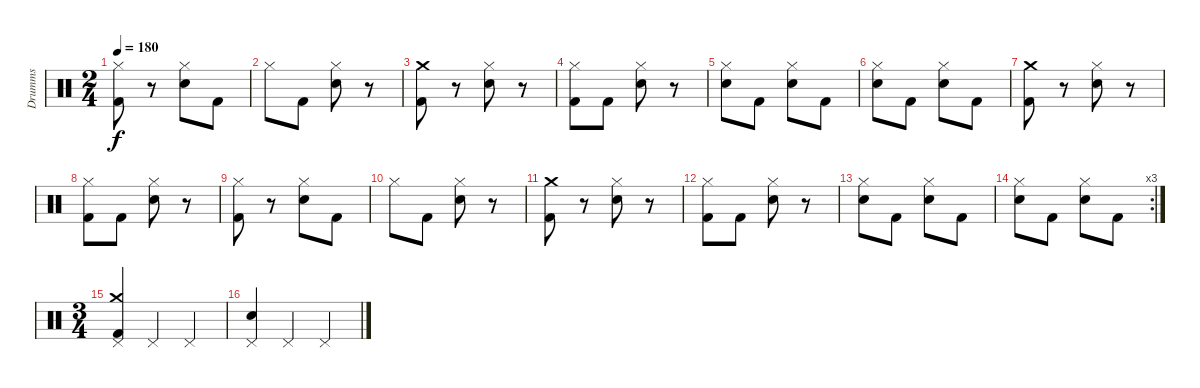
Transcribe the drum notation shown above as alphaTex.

\track ("Drumms" "Drumms") {instrument percussion}
\staff {score}
\articulation defaults
\ts (2 4)
\tempo 180
\clef neutral
\ks c
("Kick (hit) 2" "Hi-Hat (closed)").8{dy f} r.8 ("Snare (hit) 2" "Hi-Hat (closed)").8 "Kick (hit) 2".8 |
"Hi-Hat (closed)".8 "Kick (hit) 2".8 ("Snare (hit) 2" "Hi-Hat (closed)").8 r.8 |
("Kick (hit) 2" "Crash medium (hit)").8 r.8 ("Snare (hit) 2" "Hi-Hat (closed)").8 r.8 |
("Kick (hit) 2" "Hi-Hat (closed)").8 "Kick (hit) 2".8 ("Snare (hit) 2" "Hi-Hat (closed)").8 r.8 |
("Snare (hit) 2" "Hi-Hat (closed)").8 "Kick (hit) 2".8 ("Snare (hit) 2" "Hi-Hat (closed)").8 "Kick (hit) 2".8 |
("Snare (hit) 2" "Hi-Hat (closed)").8 "Kick (hit) 2".8 ("Snare (hit) 2" "Hi-Hat (closed)").8 "Kick (hit) 2".8 |
("Kick (hit) 2" "Crash medium (hit)").8 r.8 ("Snare (hit) 2" "Hi-Hat (closed)").8 r.8 |
("Kick (hit) 2" "Hi-Hat (closed)").8 "Kick (hit) 2".8 ("Snare (hit) 2" "Hi-Hat (closed)").8 r.8 |
("Kick (hit) 2" "Hi-Hat (closed)").8 r.8 ("Snare (hit) 2" "Hi-Hat (closed)").8 "Kick (hit) 2".8 |
"Hi-Hat (closed)".8 "Kick (hit) 2".8 ("Snare (hit) 2" "Hi-Hat (closed)").8 r.8 |
("Kick (hit) 2" "Crash medium (hit)").8 r.8 ("Snare (hit) 2" "Hi-Hat (closed)").8 r.8 |
("Kick (hit) 2" "Hi-Hat (closed)").8 "Kick (hit) 2".8 ("Snare (hit) 2" "Hi-Hat (closed)").8 r.8 |
("Snare (hit) 2" "Hi-Hat (closed)").8 "Kick (hit) 2".8 ("Snare (hit) 2" "Hi-Hat (closed)").8 "Kick (hit) 2".8 |
\rc 3
("Snare (hit) 2" "Hi-Hat (closed)").8 "Kick (hit) 2".8 ("Snare (hit) 2" "Hi-Hat (closed)").8 "Kick (hit) 2".8 |
\ts (3 4)
("Pedal Hi-Hat (hit)" "Kick (hit) 2" "Crash medium (hit)").4 "Pedal Hi-Hat (hit)".4 "Pedal Hi-Hat (hit)".4 |
("Pedal Hi-Hat (hit)" "Snare (hit) 2").4 "Pedal Hi-Hat (hit)".4 "Pedal Hi-Hat (hit)".4
